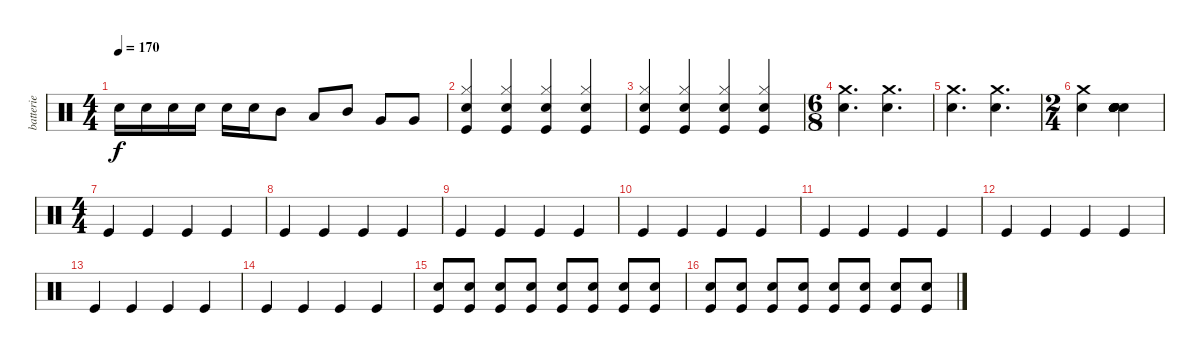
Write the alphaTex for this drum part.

\track ("batterie " "batterie ") {instrument percussion}
\staff {score}
\articulation defaults
\ts (4 4)
\tempo 170
\clef neutral
\ks c "Snare (hit) 2".16{dy f} "Snare (hit) 2".16 "Snare (hit) 2".16 "Snare (hit) 2".16 "Snare (hit) 2".16 "Snare (hit) 2".16 "Mid Tom (hit)".8 "Low Tom (hit)".8 "Mid Tom (hit)".8 "Very Low Tom (hit)".8 "Very Low Tom (hit)".8
|
("Hi-Hat (closed)" "Snare (hit) 2" "Kick (hit)").4 ("Hi-Hat (closed)" "Snare (hit) 2" "Kick (hit)").4 ("Hi-Hat (closed)" "Snare (hit) 2" "Kick (hit)").4 ("Hi-Hat (closed)" "Snare (hit) 2" "Kick (hit)").4 |
("Hi-Hat (closed)" "Snare (hit) 2" "Kick (hit)").4 ("Hi-Hat (closed)" "Snare (hit) 2" "Kick (hit)").4 ("Hi-Hat (closed)" "Snare (hit) 2" "Kick (hit)").4 ("Hi-Hat (closed)" "Snare (hit) 2" "Kick (hit)").4 |
\ts (6 8)
("Crash medium (hit)" "Snare (hit) 2").4{d} ("Crash medium (hit)" "Snare (hit) 2").4{d} |
("Crash medium (hit)" "Snare (hit) 2").4{d} ("Crash medium (hit)" "Snare (hit) 2").4{d} |
\ts (2 4)
("Crash medium (hit)" "Snare (hit) 2").4 ("Hand Clap (hit)" "Hand Clap (hit)" "Hand Clap (hit)" "Snare (hit) 2" "Hand Clap (hit)" "Hand Clap (hit)").4 |
\ts (4 4)
"Kick (hit)".4 "Kick (hit)".4 "Kick (hit)".4 "Kick (hit)".4 |
"Kick (hit)".4 "Kick (hit)".4 "Kick (hit)".4 "Kick (hit)".4 |
"Kick (hit)".4 "Kick (hit)".4 "Kick (hit)".4 "Kick (hit)".4 |
"Kick (hit)".4 "Kick (hit)".4 "Kick (hit)".4 "Kick (hit)".4 |
"Kick (hit)".4 "Kick (hit)".4 "Kick (hit)".4 "Kick (hit)".4 |
"Kick (hit)".4 "Kick (hit)".4 "Kick (hit)".4 "Kick (hit)".4 |
"Kick (hit)".4 "Kick (hit)".4 "Kick (hit)".4 "Kick (hit)".4 |
"Kick (hit)".4 "Kick (hit)".4 "Kick (hit)".4 "Kick (hit)".4 |
("Snare (hit) 2" "Kick (hit)").8 ("Snare (hit) 2" "Kick (hit)").8 ("Snare (hit) 2" "Kick (hit)").8 ("Snare (hit) 2" "Kick (hit)").8 ("Snare (hit) 2" "Kick (hit)").8 ("Snare (hit) 2" "Kick (hit)").8 ("Snare (hit) 2" "Kick (hit)").8 ("Snare (hit) 2" "Kick (hit)").8 |
("Snare (hit) 2" "Kick (hit)").8 ("Snare (hit) 2" "Kick (hit)").8 ("Snare (hit) 2" "Kick (hit)").8 ("Snare (hit) 2" "Kick (hit)").8 ("Snare (hit) 2" "Kick (hit)").8 ("Snare (hit) 2" "Kick (hit)").8 ("Snare (hit) 2" "Kick (hit)").8 ("Snare (hit) 2" "Kick (hit)").8
